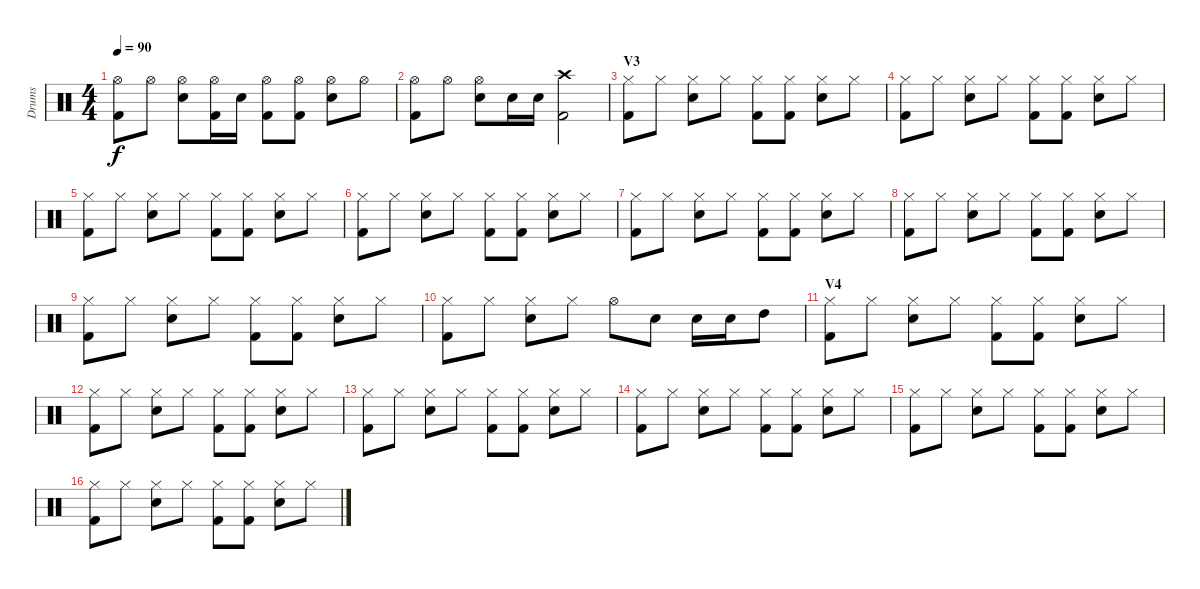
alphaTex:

\track ("Drums" "Drums") {instrument percussion}
\staff {score}
\articulation defaults
\ts (4 4)
\tempo 90
\clef neutral
\ks c
("Hi-Hat (open)" "Kick (hit) 2").8{dy f} "Hi-Hat (open)".8 ("Hi-Hat (open)" "Snare (hit) 2").8 ("Hi-Hat (open)" "Kick (hit) 2").16 "Snare (hit) 2".16 ("Hi-Hat (open)" "Kick (hit) 2").8 ("Hi-Hat (open)" "Kick (hit) 2").8 ("Hi-Hat (open)" "Snare (hit) 2").8 "Hi-Hat (open)".8 |
("Hi-Hat (open)" "Kick (hit) 2").8 "Hi-Hat (open)".8 ("Hi-Hat (open)" "Snare (hit) 2").8 "Snare (hit) 2".16 "Snare (hit) 2".16 ("Crash high (hit)" "Kick (hit) 2").2 |
\section ("" "V3")
("Hi-Hat (closed)" "Kick (hit) 2").8 "Hi-Hat (closed)".8 ("Hi-Hat (closed)" "Snare (hit) 2").8 "Hi-Hat (closed)".8 ("Hi-Hat (closed)" "Kick (hit) 2").8 ("Hi-Hat (closed)" "Kick (hit) 2").8 ("Hi-Hat (closed)" "Snare (hit) 2").8 "Hi-Hat (closed)".8 |
("Hi-Hat (closed)" "Kick (hit) 2").8 "Hi-Hat (closed)".8 ("Hi-Hat (closed)" "Snare (hit) 2").8 "Hi-Hat (closed)".8 ("Hi-Hat (closed)" "Kick (hit) 2").8 ("Hi-Hat (closed)" "Kick (hit) 2").8 ("Hi-Hat (closed)" "Snare (hit) 2").8 "Hi-Hat (closed)".8 |
("Hi-Hat (closed)" "Kick (hit) 2").8 "Hi-Hat (closed)".8 ("Hi-Hat (closed)" "Snare (hit) 2").8 "Hi-Hat (closed)".8 ("Hi-Hat (closed)" "Kick (hit) 2").8 ("Hi-Hat (closed)" "Kick (hit) 2").8 ("Hi-Hat (closed)" "Snare (hit) 2").8 "Hi-Hat (closed)".8 |
("Hi-Hat (closed)" "Kick (hit) 2").8 "Hi-Hat (closed)".8 ("Hi-Hat (closed)" "Snare (hit) 2").8 "Hi-Hat (closed)".8 ("Hi-Hat (closed)" "Kick (hit) 2").8 ("Hi-Hat (closed)" "Kick (hit) 2").8 ("Hi-Hat (closed)" "Snare (hit) 2").8 "Hi-Hat (closed)".8 |
("Hi-Hat (closed)" "Kick (hit) 2").8 "Hi-Hat (closed)".8 ("Hi-Hat (closed)" "Snare (hit) 2").8 "Hi-Hat (closed)".8 ("Hi-Hat (closed)" "Kick (hit) 2").8 ("Hi-Hat (closed)" "Kick (hit) 2").8 ("Hi-Hat (closed)" "Snare (hit) 2").8 "Hi-Hat (closed)".8 |
("Hi-Hat (closed)" "Kick (hit) 2").8 "Hi-Hat (closed)".8 ("Hi-Hat (closed)" "Snare (hit) 2").8 "Hi-Hat (closed)".8 ("Hi-Hat (closed)" "Kick (hit) 2").8 ("Hi-Hat (closed)" "Kick (hit) 2").8 ("Hi-Hat (closed)" "Snare (hit) 2").8 "Hi-Hat (closed)".8 |
("Hi-Hat (closed)" "Kick (hit) 2").8 "Hi-Hat (closed)".8 ("Hi-Hat (closed)" "Snare (hit) 2").8 "Hi-Hat (closed)".8 ("Hi-Hat (closed)" "Kick (hit) 2").8 ("Hi-Hat (closed)" "Kick (hit) 2").8 ("Hi-Hat (closed)" "Snare (hit) 2").8 "Hi-Hat (closed)".8 |
("Hi-Hat (closed)" "Kick (hit) 2").8 "Hi-Hat (closed)".8 ("Hi-Hat (closed)" "Snare (hit) 2").8 "Hi-Hat (closed)".8 "Hi-Hat (open)".8 "Snare (hit) 2".8 "Snare (hit) 2".16 "Snare (hit) 2".16 "High Tom (hit)".8 |
\section ("" "V4")
("Hi-Hat (closed)" "Kick (hit) 2").8 "Hi-Hat (closed)".8 ("Hi-Hat (closed)" "Snare (hit) 2").8 "Hi-Hat (closed)".8 ("Hi-Hat (closed)" "Kick (hit) 2").8 ("Hi-Hat (closed)" "Kick (hit) 2").8 ("Hi-Hat (closed)" "Snare (hit) 2").8 "Hi-Hat (closed)".8 |
("Hi-Hat (closed)" "Kick (hit) 2").8 "Hi-Hat (closed)".8 ("Hi-Hat (closed)" "Snare (hit) 2").8 "Hi-Hat (closed)".8 ("Hi-Hat (closed)" "Kick (hit) 2").8 ("Hi-Hat (closed)" "Kick (hit) 2").8 ("Hi-Hat (closed)" "Snare (hit) 2").8 "Hi-Hat (closed)".8 |
("Hi-Hat (closed)" "Kick (hit) 2").8 "Hi-Hat (closed)".8 ("Hi-Hat (closed)" "Snare (hit) 2").8 "Hi-Hat (closed)".8 ("Hi-Hat (closed)" "Kick (hit) 2").8 ("Hi-Hat (closed)" "Kick (hit) 2").8 ("Hi-Hat (closed)" "Snare (hit) 2").8 "Hi-Hat (closed)".8 |
("Hi-Hat (closed)" "Kick (hit) 2").8 "Hi-Hat (closed)".8 ("Hi-Hat (closed)" "Snare (hit) 2").8 "Hi-Hat (closed)".8 ("Hi-Hat (closed)" "Kick (hit) 2").8 ("Hi-Hat (closed)" "Kick (hit) 2").8 ("Hi-Hat (closed)" "Snare (hit) 2").8 "Hi-Hat (closed)".8 |
("Hi-Hat (closed)" "Kick (hit) 2").8 "Hi-Hat (closed)".8 ("Hi-Hat (closed)" "Snare (hit) 2").8 "Hi-Hat (closed)".8 ("Hi-Hat (closed)" "Kick (hit) 2").8 ("Hi-Hat (closed)" "Kick (hit) 2").8 ("Hi-Hat (closed)" "Snare (hit) 2").8 "Hi-Hat (closed)".8 |
("Hi-Hat (closed)" "Kick (hit) 2").8 "Hi-Hat (closed)".8 ("Hi-Hat (closed)" "Snare (hit) 2").8 "Hi-Hat (closed)".8 ("Hi-Hat (closed)" "Kick (hit) 2").8 ("Hi-Hat (closed)" "Kick (hit) 2").8 ("Hi-Hat (closed)" "Snare (hit) 2").8 "Hi-Hat (closed)".8
